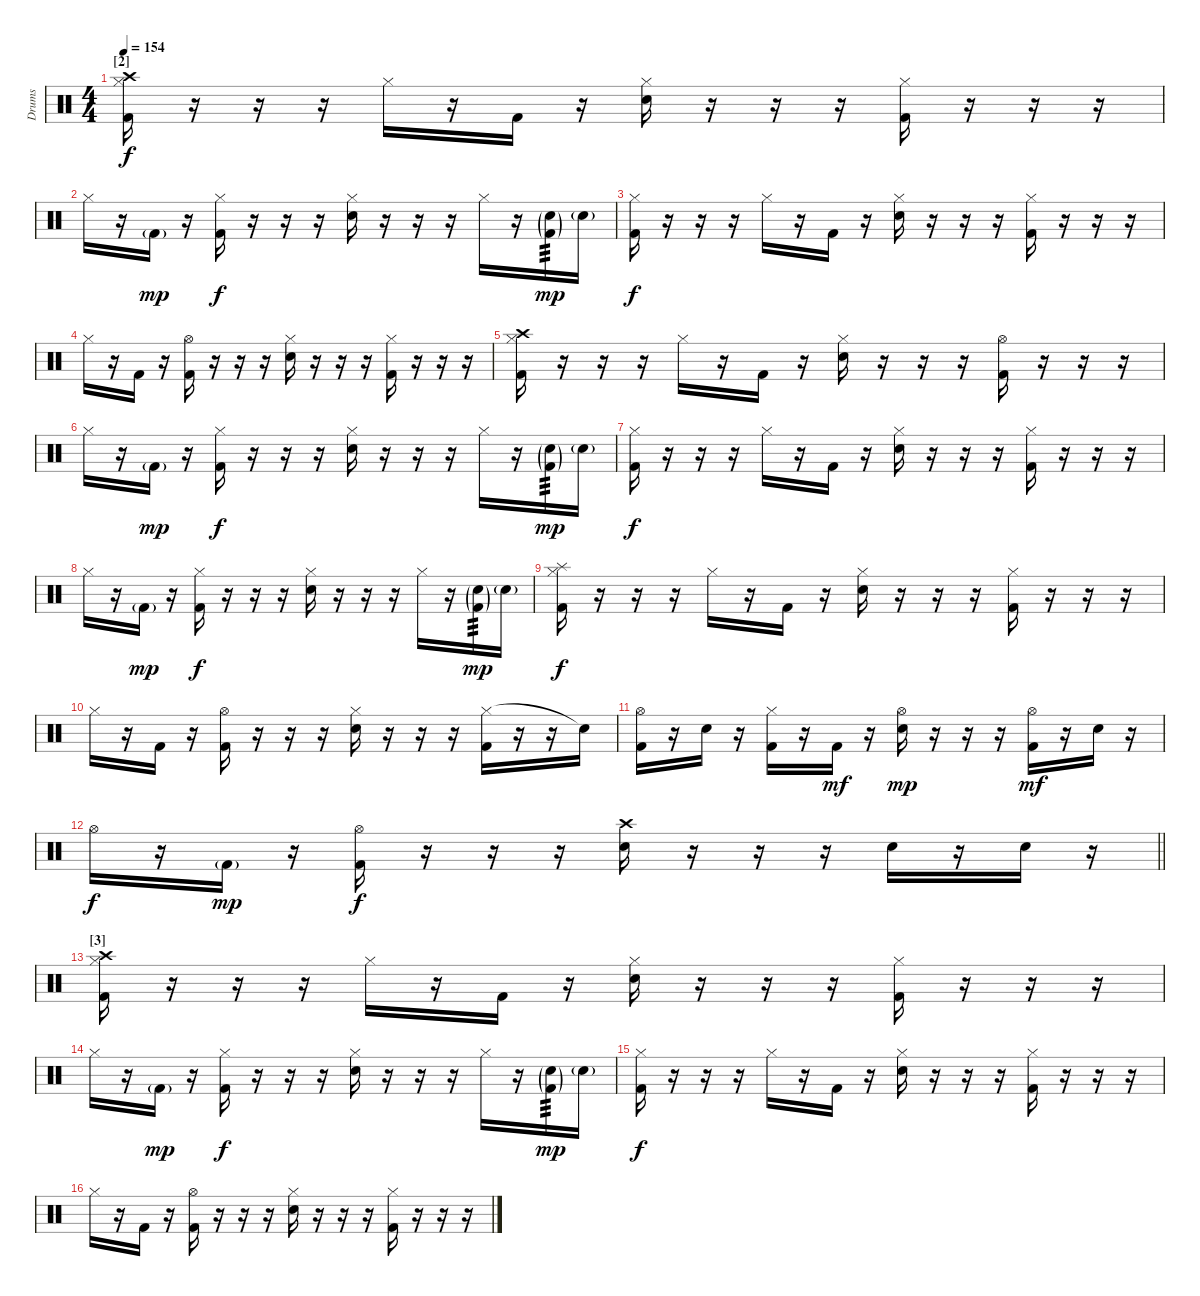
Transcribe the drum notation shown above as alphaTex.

\track ("Drums" "Drums") {instrument percussion}
\staff {score}
\articulation defaults
\ts (4 4)
\section ("" "[2]")
\tempo 154
\clef neutral
\ks c
("Crash high (hit)" "Hi-Hat (closed)" "Kick (hit) 2").16{dy f} r.16 r.16 r.16 "Hi-Hat (closed)".16 r.16 "Kick (hit) 2".16 r.16 ("Hi-Hat (closed)" "Electric Snare (hit)").16 r.16 r.16 r.16 ("Hi-Hat (closed)" "Kick (hit) 2").16 r.16 r.16 r.16 |
"Hi-Hat (closed)".16 r.16 "Kick (hit) 2"{g}.16{dy mp} r.16 ("Hi-Hat (closed)" "Kick (hit) 2").16{dy f} r.16 r.16 r.16 ("Hi-Hat (closed)" "Electric Snare (hit)").16 r.16 r.16 r.16 "Hi-Hat (closed)".16 r.16 ("Electric Snare (hit)"{g} "Kick (hit) 2"{g}).16{tp 3 dy mp} "Electric Snare (hit)"{g}.16 |
("Hi-Hat (closed)" "Kick (hit) 2").16{dy f} r.16 r.16 r.16 "Hi-Hat (closed)".16 r.16 "Kick (hit) 2".16 r.16 ("Hi-Hat (closed)" "Electric Snare (hit)").16 r.16 r.16 r.16 ("Hi-Hat (closed)" "Kick (hit) 2").16 r.16 r.16 r.16 |
"Hi-Hat (closed)".16 r.16 "Kick (hit) 2".16 r.16 ("Hi-Hat (open)" "Kick (hit) 2").16 r.16 r.16 r.16 ("Hi-Hat (closed)" "Electric Snare (hit)").16 r.16 r.16 r.16 ("Hi-Hat (closed)" "Kick (hit) 2").16 r.16 r.16 r.16 |
("Crash high (hit)" "Hi-Hat (closed)" "Kick (hit) 2").16 r.16 r.16 r.16 "Hi-Hat (closed)".16 r.16 "Kick (hit) 2".16 r.16 ("Hi-Hat (closed)" "Electric Snare (hit)").16 r.16 r.16 r.16 ("Hi-Hat (open)" "Kick (hit) 2").16 r.16 r.16 r.16 |
"Hi-Hat (closed)".16 r.16 "Kick (hit) 2"{g}.16{dy mp} r.16 ("Hi-Hat (closed)" "Kick (hit) 2").16{dy f} r.16 r.16 r.16 ("Hi-Hat (closed)" "Electric Snare (hit)").16 r.16 r.16 r.16 "Hi-Hat (closed)".16 r.16 ("Electric Snare (hit)"{g} "Kick (hit) 2"{g}).16{tp 3 dy mp} "Electric Snare (hit)"{g}.16 |
("Hi-Hat (closed)" "Kick (hit) 2").16{dy f} r.16 r.16 r.16 "Hi-Hat (closed)".16 r.16 "Kick (hit) 2".16 r.16 ("Hi-Hat (closed)" "Electric Snare (hit)").16 r.16 r.16 r.16 ("Hi-Hat (closed)" "Kick (hit) 2").16 r.16 r.16 r.16 |
"Hi-Hat (closed)".16 r.16 "Kick (hit) 2"{g}.16{dy mp} r.16 ("Hi-Hat (closed)" "Kick (hit) 2").16{dy f} r.16 r.16 r.16 ("Hi-Hat (closed)" "Electric Snare (hit)").16 r.16 r.16 r.16 "Hi-Hat (closed)".16 r.16 ("Electric Snare (hit)"{g} "Kick (hit) 2"{g}).16{tp 3 dy mp} "Electric Snare (hit)"{g}.16 |
("Splash (hit)" "Hi-Hat (closed)" "Kick (hit) 2").16{dy f} r.16 r.16 r.16 "Hi-Hat (closed)".16 r.16 "Kick (hit) 2".16 r.16 ("Hi-Hat (closed)" "Electric Snare (hit)").16 r.16 r.16 r.16 ("Hi-Hat (closed)" "Kick (hit) 2").16 r.16 r.16 r.16 |
"Hi-Hat (closed)".16 r.16 "Kick (hit) 2".16 r.16 ("Hi-Hat (open)" "Kick (hit) 2").16 r.16 r.16 r.16 ("Hi-Hat (closed)" "Electric Snare (hit)").16 r.16 r.16 r.16 ("Hi-Hat (closed)" "Kick (hit) 2").16 r.16 r.16 "Snare (hit)"{t}.16 |
("Hi-Hat (open)" "Kick (hit) 2").16 r.16 "Electric Snare (hit)".16 r.16 ("Hi-Hat (closed)" "Kick (hit) 2").16 r.16 "Kick (hit) 2".16{dy mf} r.16 ("Hi-Hat (open)" "Electric Snare (hit)").16{dy mp} r.16 r.16 r.16 ("Hi-Hat (open)" "Kick (hit) 2").16{dy mf} r.16 "Electric Snare (hit)".16 r.16 |
\barLineRight lightlight "Hi-Hat (open)".16{dy f}
r.16 "Kick (hit) 2"{g}.16{dy mp} r.16 ("Hi-Hat (open)" "Kick (hit) 2").16{dy f} r.16 r.16 r.16 ("Crash high (hit)" "Electric Snare (hit)").16 r.16 r.16 r.16 "Electric Snare (hit)".16 r.16 "Electric Snare (hit)".16 r.16 |
\section ("" "[3]")
("Crash high (hit)" "Hi-Hat (closed)" "Kick (hit) 2").16 r.16 r.16 r.16 "Hi-Hat (closed)".16 r.16 "Kick (hit) 2".16 r.16 ("Hi-Hat (closed)" "Electric Snare (hit)").16 r.16 r.16 r.16 ("Hi-Hat (closed)" "Kick (hit) 2").16 r.16 r.16 r.16 |
"Hi-Hat (closed)".16 r.16 "Kick (hit) 2"{g}.16{dy mp} r.16 ("Hi-Hat (closed)" "Kick (hit) 2").16{dy f} r.16 r.16 r.16 ("Hi-Hat (closed)" "Electric Snare (hit)").16 r.16 r.16 r.16 "Hi-Hat (closed)".16 r.16 ("Electric Snare (hit)"{g} "Kick (hit) 2"{g}).16{tp 3 dy mp} "Electric Snare (hit)"{g}.16 |
("Hi-Hat (closed)" "Kick (hit) 2").16{dy f} r.16 r.16 r.16 "Hi-Hat (closed)".16 r.16 "Kick (hit) 2".16 r.16 ("Hi-Hat (closed)" "Electric Snare (hit)").16 r.16 r.16 r.16 ("Hi-Hat (closed)" "Kick (hit) 2").16 r.16 r.16 r.16 |
"Hi-Hat (closed)".16 r.16 "Kick (hit) 2".16 r.16 ("Hi-Hat (open)" "Kick (hit) 2").16 r.16 r.16 r.16 ("Hi-Hat (closed)" "Electric Snare (hit)").16 r.16 r.16 r.16 ("Hi-Hat (closed)" "Kick (hit) 2").16 r.16 r.16 r.16
